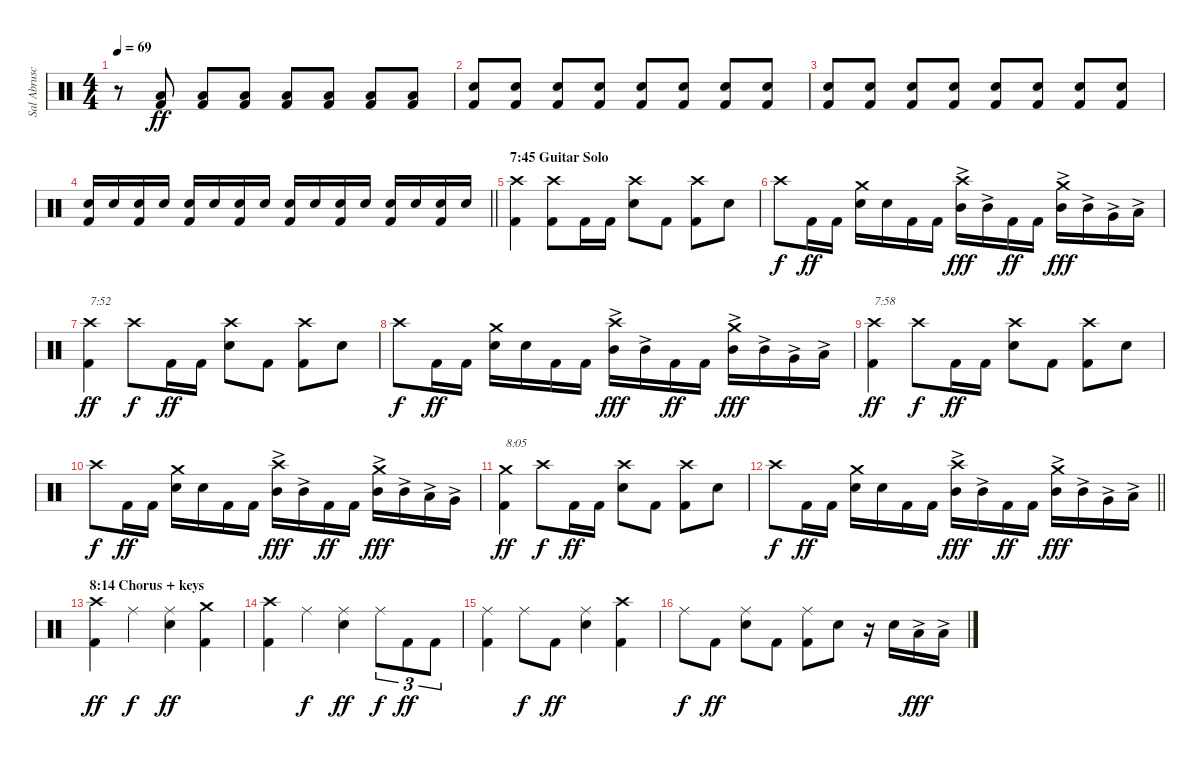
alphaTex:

\track ("Sal Abruscato (Drums)" "Sal Abrusc") {instrument percussion}
\staff {score}
\articulation defaults
\ts (4 4)
\tempo 69
\clef neutral
\ks c
r.8{dy ff} ("Kick (hit) 2" "Low Tom (hit)").8 ("Kick (hit) 2" "Low Tom (hit)").8 ("Kick (hit) 2" "Low Tom (hit)").8 ("Kick (hit) 2" "Low Tom (hit)").8 ("Kick (hit) 2" "Low Tom (hit)").8 ("Kick (hit) 2" "Low Tom (hit)").8 ("Kick (hit) 2" "Low Tom (hit)").8 |
("Kick (hit) 2" "Electric Snare (hit)").8 ("Kick (hit) 2" "Electric Snare (hit)").8 ("Kick (hit) 2" "Electric Snare (hit)").8 ("Kick (hit) 2" "Electric Snare (hit)").8 ("Kick (hit) 2" "Electric Snare (hit)").8 ("Kick (hit) 2" "Electric Snare (hit)").8 ("Kick (hit) 2" "Electric Snare (hit)").8 ("Kick (hit) 2" "Electric Snare (hit)").8 |
("Kick (hit) 2" "Electric Snare (hit)").8 ("Kick (hit) 2" "Electric Snare (hit)").8 ("Kick (hit) 2" "Electric Snare (hit)").8 ("Kick (hit) 2" "Electric Snare (hit)").8 ("Kick (hit) 2" "Electric Snare (hit)").8 ("Kick (hit) 2" "Electric Snare (hit)").8 ("Kick (hit) 2" "Electric Snare (hit)").8 ("Kick (hit) 2" "Electric Snare (hit)").8 |
\barLineRight lightlight
("Kick (hit) 2" "Electric Snare (hit)").16 "Electric Snare (hit)".16 ("Kick (hit) 2" "Electric Snare (hit)").16 "Electric Snare (hit)".16 ("Kick (hit) 2" "Electric Snare (hit)").16 "Electric Snare (hit)".16 ("Kick (hit) 2" "Electric Snare (hit)").16 "Electric Snare (hit)".16 ("Kick (hit) 2" "Electric Snare (hit)").16 "Electric Snare (hit)".16 ("Kick (hit) 2" "Electric Snare (hit)").16 "Electric Snare (hit)".16 ("Kick (hit) 2" "Electric Snare (hit)").16 "Electric Snare (hit)".16 ("Kick (hit) 2" "Electric Snare (hit)").16 "Electric Snare (hit)".16 |
\section ("" "7:45 Guitar Solo")
("Kick (hit) 2" "Crash high (hit)").4 ("Kick (hit) 2" "Crash high (hit)").8 "Kick (hit) 2".16 "Kick (hit) 2".16 ("Electric Snare (hit)" "Crash high (hit)").8 "Kick (hit) 2".8 ("Kick (hit) 2" "Crash high (hit)").8 "Electric Snare (hit)".8 |
"Crash high (hit)".8{dy f} "Kick (hit) 2".16{dy ff} "Kick (hit) 2".16 ("Electric Snare (hit)" "Crash medium (hit)").16 "Electric Snare (hit)".16 "Kick (hit) 2".16 "Kick (hit) 2".16 ("Mid Tom (hit)"{ac} "Crash high (hit)").16{dy fff} "Mid Tom (hit)"{ac}.16 "Kick (hit) 2".16{dy ff} "Kick (hit) 2".16 ("Mid Tom (hit)"{ac} "Crash medium (hit)").16{dy fff} "Mid Tom (hit)"{ac}.16 "Very Low Tom (hit)"{ac}.16 "Low Tom (hit)"{ac}.16 |
("Kick (hit) 2" "Crash high (hit)").4{txt "7:52" dy ff} "Crash high (hit)".8{dy f} "Kick (hit) 2".16{dy ff} "Kick (hit) 2".16 ("Electric Snare (hit)" "Crash high (hit)").8 "Kick (hit) 2".8 ("Kick (hit) 2" "Crash high (hit)").8 "Electric Snare (hit)".8 |
"Crash high (hit)".8{dy f} "Kick (hit) 2".16{dy ff} "Kick (hit) 2".16 ("Electric Snare (hit)" "Crash medium (hit)").16 "Electric Snare (hit)".16 "Kick (hit) 2".16 "Kick (hit) 2".16 ("Mid Tom (hit)"{ac} "Crash high (hit)").16{dy fff} "Mid Tom (hit)"{ac}.16 "Kick (hit) 2".16{dy ff} "Kick (hit) 2".16 ("Mid Tom (hit)"{ac} "Crash medium (hit)").16{dy fff} "Mid Tom (hit)"{ac}.16 "Very Low Tom (hit)"{ac}.16 "Low Tom (hit)"{ac}.16 |
("Kick (hit) 2" "Crash high (hit)").4{txt "7:58" dy ff} "Crash high (hit)".8{dy f} "Kick (hit) 2".16{dy ff} "Kick (hit) 2".16 ("Electric Snare (hit)" "Crash high (hit)").8 "Kick (hit) 2".8 ("Kick (hit) 2" "Crash high (hit)").8 "Electric Snare (hit)".8 |
"Crash high (hit)".8{dy f} "Kick (hit) 2".16{dy ff} "Kick (hit) 2".16 ("Electric Snare (hit)" "Crash medium (hit)").16 "Electric Snare (hit)".16 "Kick (hit) 2".16 "Kick (hit) 2".16 ("Mid Tom (hit)"{ac} "Crash high (hit)").16{dy fff} "Mid Tom (hit)"{ac}.16 "Kick (hit) 2".16{dy ff} "Kick (hit) 2".16 ("Mid Tom (hit)"{ac} "Crash medium (hit)").16{dy fff} "Mid Tom (hit)"{ac}.16 "Low Tom (hit)"{ac}.16 "Very Low Tom (hit)"{ac}.16 |
("Kick (hit) 2" "Crash medium (hit)").4{txt "8:05" dy ff} "Crash high (hit)".8{dy f} "Kick (hit) 2".16{dy ff} "Kick (hit) 2".16 ("Electric Snare (hit)" "Crash high (hit)").8 "Kick (hit) 2".8 ("Kick (hit) 2" "Crash high (hit)").8 "Electric Snare (hit)".8 |
\barLineRight lightlight "Crash high (hit)".8{dy f} "Kick (hit) 2".16{dy ff} "Kick (hit) 2".16
("Electric Snare (hit)" "Crash medium (hit)").16 "Electric Snare (hit)".16 "Kick (hit) 2".16 "Kick (hit) 2".16 ("Mid Tom (hit)"{ac} "Crash high (hit)").16{dy fff} "Mid Tom (hit)"{ac}.16 "Kick (hit) 2".16{dy ff} "Kick (hit) 2".16 ("Mid Tom (hit)"{ac} "Crash medium (hit)").16{dy fff} "Mid Tom (hit)"{ac}.16 "Very Low Tom (hit)"{ac}.16 "Low Tom (hit)"{ac}.16 |
\section ("" "8:14 Chorus + keys")
("Kick (hit) 2" "Crash high (hit)").4{dy ff} "Ride (middle)".4{dy f} ("Electric Snare (hit)" "Ride (middle)").4{dy ff} ("Kick (hit) 2" "Crash medium (hit)").4 |
("Kick (hit) 2" "Crash high (hit)").4 "Ride (middle)".4{dy f} ("Electric Snare (hit)" "Ride (middle)").4{dy ff} "Ride (middle)".8{tu (3 2) dy f} "Kick (hit) 2".8{tu (3 2) dy ff} "Kick (hit) 2".8{tu (3 2)} |
("Kick (hit) 2" "Ride (middle)").4 "Ride (middle)".8{dy f} "Kick (hit) 2".8{dy ff} ("Electric Snare (hit)" "Ride (middle)").4 ("Kick (hit) 2" "Crash high (hit)").4 |
"Ride (middle)".8{dy f} "Kick (hit) 2".8{dy ff} ("Electric Snare (hit)" "Ride (middle)").8 "Kick (hit) 2".8 ("Kick (hit) 2" "Ride (middle)").8 "Electric Snare (hit)".8 r.16 "Electric Snare (hit)".16 "Low Tom (hit)"{ac}.16{dy fff} "Low Floor Tom (hit)"{ac}.16
